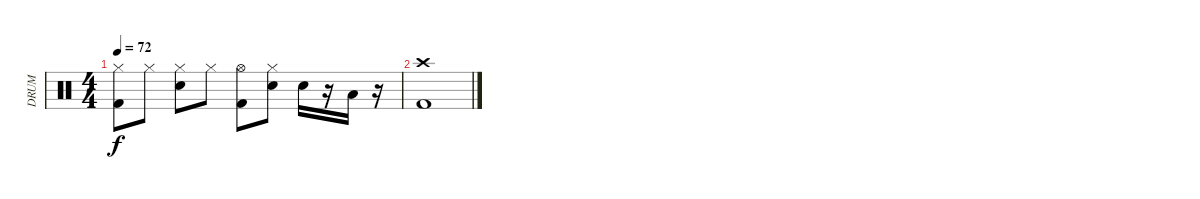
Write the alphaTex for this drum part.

\track ("DRUM" "DRUM") {instrument percussion}
\staff {score}
\articulation defaults
\ts (4 4)
\tempo 72
\clef neutral
\ks c
("Kick (hit) 2" "Hi-Hat (closed)").8{dy f} "Hi-Hat (closed)".8 ("Hi-Hat (closed)" "Electric Snare (hit)").8 "Hi-Hat (closed)".8 ("Kick (hit) 2" "Hi-Hat (open)").8 ("Electric Snare (hit)" "Hi-Hat (closed)").8 "Electric Snare (hit)".16 r.16 "Low Tom (hit)".16 r.16 |
("Kick (hit) 2" "Crash high (hit)").1
